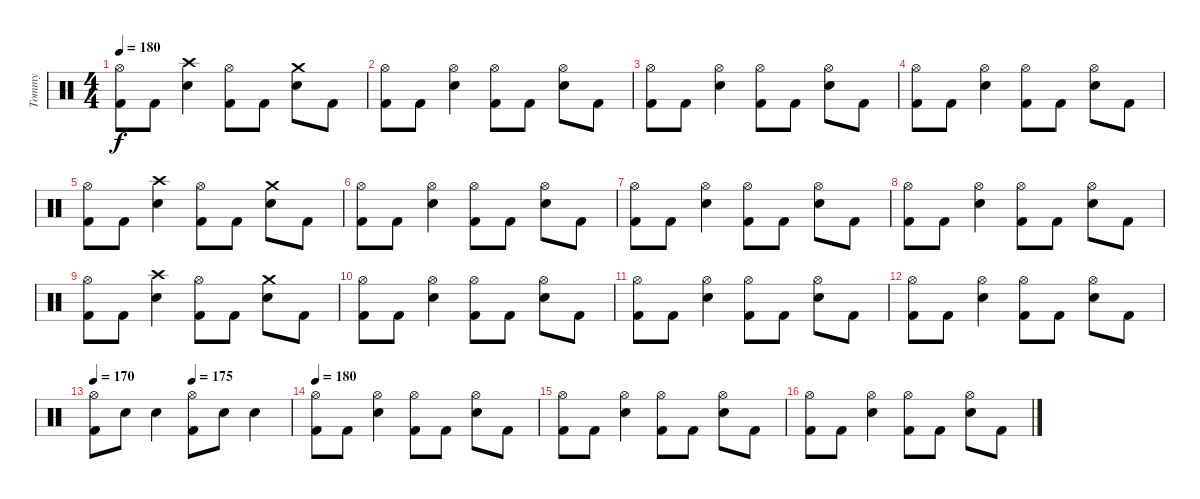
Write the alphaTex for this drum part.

\track ("Tommy" "Tommy") {instrument percussion}
\staff {score}
\articulation defaults
\ts (4 4)
\tempo 180
\clef neutral
\ks c
("Kick (hit) 2" "Hi-Hat (open)").8{dy f} "Kick (hit) 2".8 ("Snare (hit) 2" "Crash high (hit)").4 ("Kick (hit) 2" "Hi-Hat (open)").8 "Kick (hit) 2".8 ("Snare (hit) 2" "Crash medium (hit)").8 "Kick (hit) 2".8 |
("Kick (hit) 2" "Hi-Hat (open)").8 "Kick (hit) 2".8 ("Snare (hit) 2" "Hi-Hat (open)").4 ("Kick (hit) 2" "Hi-Hat (open)").8 "Kick (hit) 2".8 ("Snare (hit) 2" "Hi-Hat (open)").8 "Kick (hit) 2".8 |
("Kick (hit) 2" "Hi-Hat (open)").8 "Kick (hit) 2".8 ("Snare (hit) 2" "Hi-Hat (open)").4 ("Kick (hit) 2" "Hi-Hat (open)").8 "Kick (hit) 2".8 ("Snare (hit) 2" "Hi-Hat (open)").8 "Kick (hit) 2".8 |
("Kick (hit) 2" "Hi-Hat (open)").8 "Kick (hit) 2".8 ("Snare (hit) 2" "Hi-Hat (open)").4 ("Kick (hit) 2" "Hi-Hat (open)").8 "Kick (hit) 2".8 ("Snare (hit) 2" "Hi-Hat (open)").8 "Kick (hit) 2".8 |
("Kick (hit) 2" "Hi-Hat (open)").8 "Kick (hit) 2".8 ("Snare (hit) 2" "Crash high (hit)").4 ("Kick (hit) 2" "Hi-Hat (open)").8 "Kick (hit) 2".8 ("Snare (hit) 2" "Crash medium (hit)").8 "Kick (hit) 2".8 |
("Kick (hit) 2" "Hi-Hat (open)").8 "Kick (hit) 2".8 ("Snare (hit) 2" "Hi-Hat (open)").4 ("Kick (hit) 2" "Hi-Hat (open)").8 "Kick (hit) 2".8 ("Snare (hit) 2" "Hi-Hat (open)").8 "Kick (hit) 2".8 |
("Kick (hit) 2" "Hi-Hat (open)").8 "Kick (hit) 2".8 ("Snare (hit) 2" "Hi-Hat (open)").4 ("Kick (hit) 2" "Hi-Hat (open)").8 "Kick (hit) 2".8 ("Snare (hit) 2" "Hi-Hat (open)").8 "Kick (hit) 2".8 |
("Kick (hit) 2" "Hi-Hat (open)").8 "Kick (hit) 2".8 ("Snare (hit) 2" "Hi-Hat (open)").4 ("Kick (hit) 2" "Hi-Hat (open)").8 "Kick (hit) 2".8 ("Snare (hit) 2" "Hi-Hat (open)").8 "Kick (hit) 2".8 |
("Kick (hit) 2" "Hi-Hat (open)").8 "Kick (hit) 2".8 ("Snare (hit) 2" "Crash high (hit)").4 ("Kick (hit) 2" "Hi-Hat (open)").8 "Kick (hit) 2".8 ("Snare (hit) 2" "Crash medium (hit)").8 "Kick (hit) 2".8 |
("Kick (hit) 2" "Hi-Hat (open)").8 "Kick (hit) 2".8 ("Snare (hit) 2" "Hi-Hat (open)").4 ("Kick (hit) 2" "Hi-Hat (open)").8 "Kick (hit) 2".8 ("Snare (hit) 2" "Hi-Hat (open)").8 "Kick (hit) 2".8 |
("Kick (hit) 2" "Hi-Hat (open)").8 "Kick (hit) 2".8 ("Snare (hit) 2" "Hi-Hat (open)").4 ("Kick (hit) 2" "Hi-Hat (open)").8 "Kick (hit) 2".8 ("Snare (hit) 2" "Hi-Hat (open)").8 "Kick (hit) 2".8 |
("Kick (hit) 2" "Hi-Hat (open)").8 "Kick (hit) 2".8 ("Snare (hit) 2" "Hi-Hat (open)").4 ("Kick (hit) 2" "Hi-Hat (open)").8 "Kick (hit) 2".8 ("Snare (hit) 2" "Hi-Hat (open)").8 "Kick (hit) 2".8 |
\tempo 170
\tempo (175 0.5)
("Kick (hit) 2" "Hi-Hat (open)").8 "Snare (hit) 2".8 "Snare (hit) 2".4 ("Kick (hit) 2" "Hi-Hat (open)").8 "Snare (hit) 2".8 "Snare (hit) 2".4 |
\tempo 180
("Kick (hit) 2" "Hi-Hat (open)").8 "Kick (hit) 2".8 ("Snare (hit) 2" "Hi-Hat (open)").4 ("Kick (hit) 2" "Hi-Hat (open)").8 "Kick (hit) 2".8 ("Snare (hit) 2" "Hi-Hat (open)").8 "Kick (hit) 2".8 |
("Kick (hit) 2" "Hi-Hat (open)").8 "Kick (hit) 2".8 ("Snare (hit) 2" "Hi-Hat (open)").4 ("Kick (hit) 2" "Hi-Hat (open)").8 "Kick (hit) 2".8 ("Snare (hit) 2" "Hi-Hat (open)").8 "Kick (hit) 2".8 |
("Kick (hit) 2" "Hi-Hat (open)").8 "Kick (hit) 2".8 ("Snare (hit) 2" "Hi-Hat (open)").4 ("Kick (hit) 2" "Hi-Hat (open)").8 "Kick (hit) 2".8 ("Snare (hit) 2" "Hi-Hat (open)").8 "Kick (hit) 2".8
